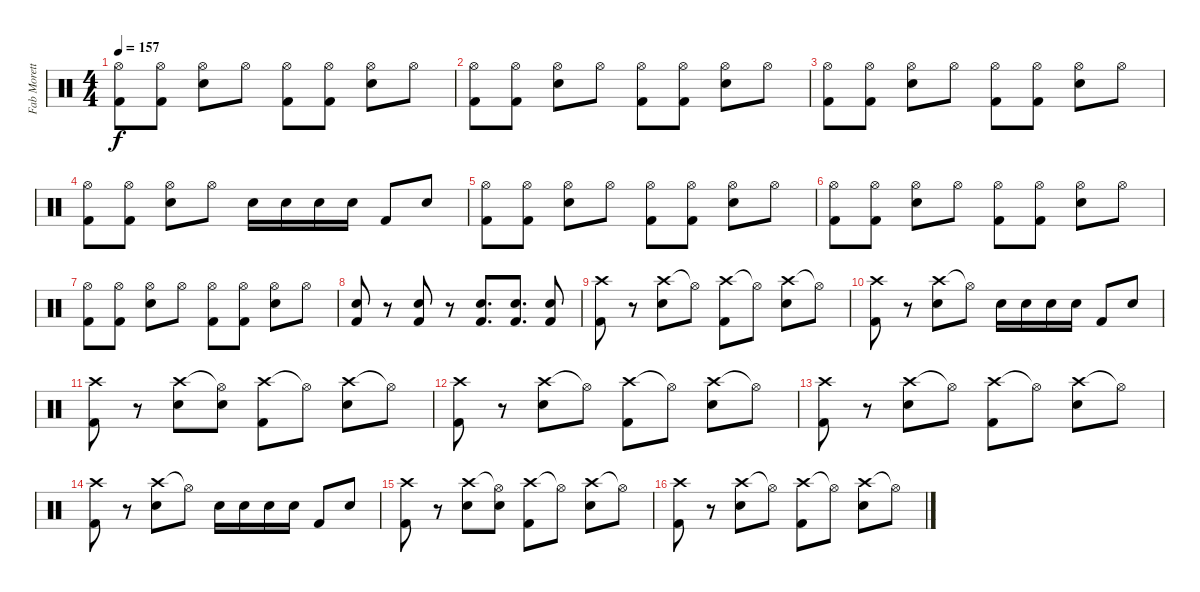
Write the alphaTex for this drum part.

\track ("Fab Moretti - Drums" "Fab Morett") {instrument percussion bank 177}
\staff {score}
\articulation defaults
\ts (4 4)
\tempo 157
\clef neutral
\ks c
("Hi-Hat (open)" "Kick (hit) 2").8{dy f} ("Hi-Hat (open)" "Kick (hit) 2").8 ("Hi-Hat (open)" "Electric Snare (hit)").8 "Hi-Hat (open)".8 ("Hi-Hat (open)" "Kick (hit) 2").8 ("Hi-Hat (open)" "Kick (hit) 2").8 ("Hi-Hat (open)" "Electric Snare (hit)").8 "Hi-Hat (open)".8 |
("Hi-Hat (open)" "Kick (hit) 2").8 ("Hi-Hat (open)" "Kick (hit) 2").8 ("Hi-Hat (open)" "Electric Snare (hit)").8 "Hi-Hat (open)".8 ("Hi-Hat (open)" "Kick (hit) 2").8 ("Hi-Hat (open)" "Kick (hit) 2").8 ("Hi-Hat (open)" "Electric Snare (hit)").8 "Hi-Hat (open)".8 |
("Hi-Hat (open)" "Kick (hit) 2").8 ("Hi-Hat (open)" "Kick (hit) 2").8 ("Hi-Hat (open)" "Electric Snare (hit)").8 "Hi-Hat (open)".8 ("Hi-Hat (open)" "Kick (hit) 2").8 ("Hi-Hat (open)" "Kick (hit) 2").8 ("Hi-Hat (open)" "Electric Snare (hit)").8 "Hi-Hat (open)".8 |
("Hi-Hat (open)" "Kick (hit) 2").8 ("Hi-Hat (open)" "Kick (hit) 2").8 ("Hi-Hat (open)" "Electric Snare (hit)").8 "Hi-Hat (open)".8 "Electric Snare (hit)".16 "Electric Snare (hit)".16 "Electric Snare (hit)".16 "Electric Snare (hit)".16 "Kick (hit) 2".8 "Electric Snare (hit)".8 |
("Hi-Hat (open)" "Kick (hit) 2").8 ("Hi-Hat (open)" "Kick (hit) 2").8 ("Hi-Hat (open)" "Electric Snare (hit)").8 "Hi-Hat (open)".8 ("Hi-Hat (open)" "Kick (hit) 2").8 ("Hi-Hat (open)" "Kick (hit) 2").8 ("Hi-Hat (open)" "Electric Snare (hit)").8 "Hi-Hat (open)".8 |
("Hi-Hat (open)" "Kick (hit) 2").8 ("Hi-Hat (open)" "Kick (hit) 2").8 ("Hi-Hat (open)" "Electric Snare (hit)").8 "Hi-Hat (open)".8 ("Hi-Hat (open)" "Kick (hit) 2").8 ("Hi-Hat (open)" "Kick (hit) 2").8 ("Hi-Hat (open)" "Electric Snare (hit)").8 "Hi-Hat (open)".8 |
("Hi-Hat (open)" "Kick (hit) 2").8 ("Hi-Hat (open)" "Kick (hit) 2").8 ("Hi-Hat (open)" "Electric Snare (hit)").8 "Hi-Hat (open)".8 ("Hi-Hat (open)" "Kick (hit) 2").8 ("Hi-Hat (open)" "Kick (hit) 2").8 ("Hi-Hat (open)" "Electric Snare (hit)").8 "Hi-Hat (open)".8 |
("Electric Snare (hit)" "Kick (hit) 2").8 r.8 ("Electric Snare (hit)" "Kick (hit) 2").8 r.8 ("Electric Snare (hit)" "Kick (hit) 2").8{d} ("Electric Snare (hit)" "Kick (hit) 2").8{d} ("Electric Snare (hit)" "Kick (hit) 2").8 |
("Crash high (hit)" "Kick (hit) 2").8 r.8 ("Crash high (hit)" "Electric Snare (hit)").8 "Hi-Hat (open)"{t}.8 ("Crash high (hit)" "Kick (hit) 2").8 "Hi-Hat (open)"{t}.8 ("Crash high (hit)" "Electric Snare (hit)").8 "Hi-Hat (open)"{t}.8 |
("Crash high (hit)" "Kick (hit) 2").8 r.8 ("Crash high (hit)" "Electric Snare (hit)").8 "Hi-Hat (open)"{t}.8 "Electric Snare (hit)".16 "Electric Snare (hit)".16 "Electric Snare (hit)".16 "Electric Snare (hit)".16 "Kick (hit) 2".8 "Electric Snare (hit)".8 |
("Crash high (hit)" "Kick (hit) 2").8 r.8 ("Crash high (hit)" "Electric Snare (hit)").8 ("Hi-Hat (open)"{t} "Electric Snare (hit)").8 ("Crash high (hit)" "Kick (hit) 2").8 "Hi-Hat (open)"{t}.8 ("Crash high (hit)" "Electric Snare (hit)").8 "Hi-Hat (open)"{t}.8 |
("Crash high (hit)" "Kick (hit) 2").8 r.8 ("Crash high (hit)" "Electric Snare (hit)").8 "Hi-Hat (open)"{t}.8 ("Crash high (hit)" "Kick (hit) 2").8 "Hi-Hat (open)"{t}.8 ("Crash high (hit)" "Electric Snare (hit)").8 "Hi-Hat (open)"{t}.8 |
("Crash high (hit)" "Kick (hit) 2").8 r.8 ("Crash high (hit)" "Electric Snare (hit)").8 "Hi-Hat (open)"{t}.8 ("Crash high (hit)" "Kick (hit) 2").8 "Hi-Hat (open)"{t}.8 ("Crash high (hit)" "Electric Snare (hit)").8 "Hi-Hat (open)"{t}.8 |
("Crash high (hit)" "Kick (hit) 2").8 r.8 ("Crash high (hit)" "Electric Snare (hit)").8 "Hi-Hat (open)"{t}.8 "Electric Snare (hit)".16 "Electric Snare (hit)".16 "Electric Snare (hit)".16 "Electric Snare (hit)".16 "Kick (hit) 2".8 "Electric Snare (hit)".8 |
("Crash high (hit)" "Kick (hit) 2").8 r.8 ("Crash high (hit)" "Electric Snare (hit)").8 ("Hi-Hat (open)"{t} "Electric Snare (hit)").8 ("Crash high (hit)" "Kick (hit) 2").8 "Hi-Hat (open)"{t}.8 ("Crash high (hit)" "Electric Snare (hit)").8 "Hi-Hat (open)"{t}.8 |
("Crash high (hit)" "Kick (hit) 2").8 r.8 ("Crash high (hit)" "Electric Snare (hit)").8 "Hi-Hat (open)"{t}.8 ("Crash high (hit)" "Kick (hit) 2").8 "Hi-Hat (open)"{t}.8 ("Crash high (hit)" "Electric Snare (hit)").8 "Hi-Hat (open)"{t}.8
